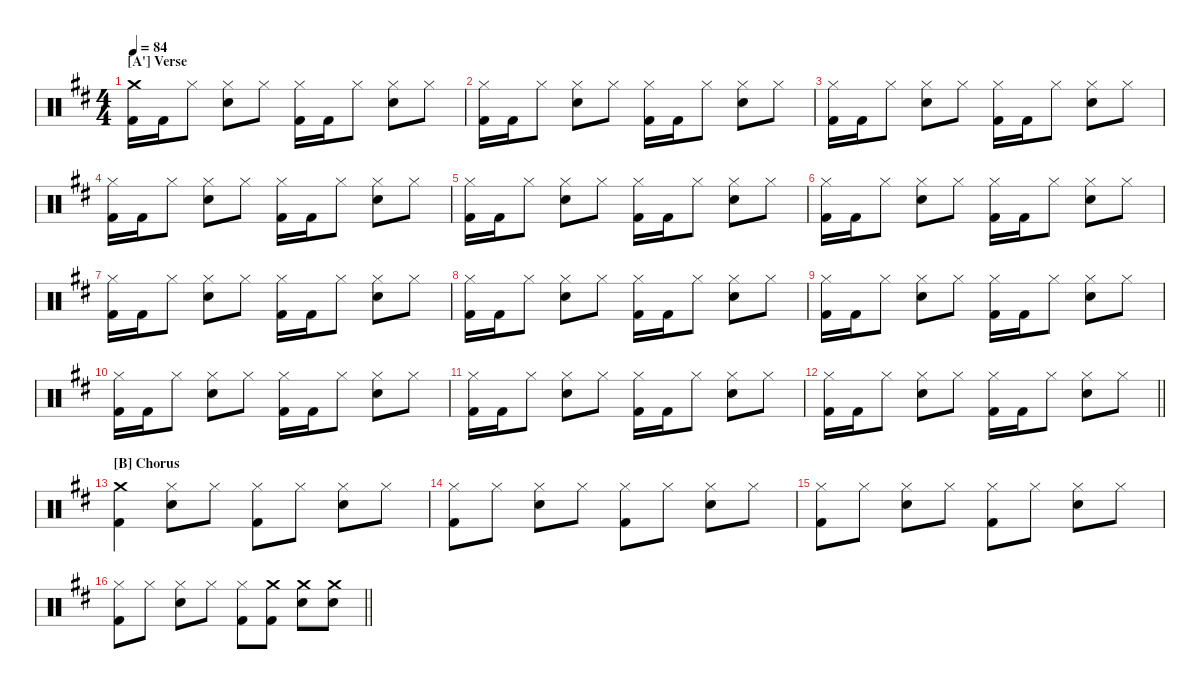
\hideDynamics
\bracketExtendMode nobrackets
\singleTrackTrackNamePolicy hidden
\multiTrackTrackNamePolicy hidden
\otherSystemsTrackNameOrientation horizontal
\track ("Drumkit" "Drums") {instrument percussion}
\staff {score}
\articulation defaults
\ts (4 4)
\section ("A'" "Verse")
\tempo 84
\clef neutral
\ks d
("Kick (hit) 2"{acc forcenatural} "Crash medium (hit)"{acc forcenatural}).16{dy f beam Down} "Kick (hit) 2"{acc forcenatural}.16{beam Down} "Hi-Hat (closed)"{acc forcenatural}.8{beam Down} ("Snare (hit) 2"{acc forcenatural} "Hi-Hat (closed)"{acc forcenatural}).8{beam Down} "Hi-Hat (closed)"{acc forcenatural}.8{beam Down} ("Kick (hit) 2"{acc forcenatural} "Hi-Hat (closed)"{acc forcenatural}).16{beam Down} "Kick (hit) 2"{acc forcenatural}.16{beam Down} "Hi-Hat (closed)"{acc forcenatural}.8{beam Down} ("Snare (hit) 2"{acc forcenatural} "Hi-Hat (closed)"{acc forcenatural}).8{beam Down} "Hi-Hat (closed)"{acc forcenatural}.8{beam Down} |
("Kick (hit) 2"{acc forcenatural} "Hi-Hat (closed)"{acc forcenatural}).16{beam Down} "Kick (hit) 2"{acc forcenatural}.16{beam Down} "Hi-Hat (closed)"{acc forcenatural}.8{beam Down} ("Snare (hit) 2"{acc forcenatural} "Hi-Hat (closed)"{acc forcenatural}).8{beam Down} "Hi-Hat (closed)"{acc forcenatural}.8{beam Down} ("Kick (hit) 2"{acc forcenatural} "Hi-Hat (closed)"{acc forcenatural}).16{beam Down} "Kick (hit) 2"{acc forcenatural}.16{beam Down} "Hi-Hat (closed)"{acc forcenatural}.8{beam Down} ("Snare (hit) 2"{acc forcenatural} "Hi-Hat (closed)"{acc forcenatural}).8{beam Down} "Hi-Hat (closed)"{acc forcenatural}.8{beam Down} |
("Kick (hit) 2"{acc forcenatural} "Hi-Hat (closed)"{acc forcenatural}).16{beam Down} "Kick (hit) 2"{acc forcenatural}.16{beam Down} "Hi-Hat (closed)"{acc forcenatural}.8{beam Down} ("Snare (hit) 2"{acc forcenatural} "Hi-Hat (closed)"{acc forcenatural}).8{beam Down} "Hi-Hat (closed)"{acc forcenatural}.8{beam Down} ("Kick (hit) 2"{acc forcenatural} "Hi-Hat (closed)"{acc forcenatural}).16{beam Down} "Kick (hit) 2"{acc forcenatural}.16{beam Down} "Hi-Hat (closed)"{acc forcenatural}.8{beam Down} ("Snare (hit) 2"{acc forcenatural} "Hi-Hat (closed)"{acc forcenatural}).8{beam Down} "Hi-Hat (closed)"{acc forcenatural}.8{beam Down} |
("Kick (hit) 2"{acc forcenatural} "Hi-Hat (closed)"{acc forcenatural}).16{beam Down} "Kick (hit) 2"{acc forcenatural}.16{beam Down} "Hi-Hat (closed)"{acc forcenatural}.8{beam Down} ("Snare (hit) 2"{acc forcenatural} "Hi-Hat (closed)"{acc forcenatural}).8{beam Down} "Hi-Hat (closed)"{acc forcenatural}.8{beam Down} ("Kick (hit) 2"{acc forcenatural} "Hi-Hat (closed)"{acc forcenatural}).16{beam Down} "Kick (hit) 2"{acc forcenatural}.16{beam Down} "Hi-Hat (closed)"{acc forcenatural}.8{beam Down} ("Snare (hit) 2"{acc forcenatural} "Hi-Hat (closed)"{acc forcenatural}).8{beam Down} "Hi-Hat (closed)"{acc forcenatural}.8{beam Down} |
("Kick (hit) 2"{acc forcenatural} "Hi-Hat (closed)"{acc forcenatural}).16{beam Down} "Kick (hit) 2"{acc forcenatural}.16{beam Down} "Hi-Hat (closed)"{acc forcenatural}.8{beam Down} ("Snare (hit) 2"{acc forcenatural} "Hi-Hat (closed)"{acc forcenatural}).8{beam Down} "Hi-Hat (closed)"{acc forcenatural}.8{beam Down} ("Kick (hit) 2"{acc forcenatural} "Hi-Hat (closed)"{acc forcenatural}).16{beam Down} "Kick (hit) 2"{acc forcenatural}.16{beam Down} "Hi-Hat (closed)"{acc forcenatural}.8{beam Down} ("Snare (hit) 2"{acc forcenatural} "Hi-Hat (closed)"{acc forcenatural}).8{beam Down} "Hi-Hat (closed)"{acc forcenatural}.8{beam Down} |
("Kick (hit) 2"{acc forcenatural} "Hi-Hat (closed)"{acc forcenatural}).16{beam Down} "Kick (hit) 2"{acc forcenatural}.16{beam Down} "Hi-Hat (closed)"{acc forcenatural}.8{beam Down} ("Snare (hit) 2"{acc forcenatural} "Hi-Hat (closed)"{acc forcenatural}).8{beam Down} "Hi-Hat (closed)"{acc forcenatural}.8{beam Down} ("Kick (hit) 2"{acc forcenatural} "Hi-Hat (closed)"{acc forcenatural}).16{beam Down} "Kick (hit) 2"{acc forcenatural}.16{beam Down} "Hi-Hat (closed)"{acc forcenatural}.8{beam Down} ("Snare (hit) 2"{acc forcenatural} "Hi-Hat (closed)"{acc forcenatural}).8{beam Down} "Hi-Hat (closed)"{acc forcenatural}.8{beam Down} |
("Kick (hit) 2"{acc forcenatural} "Hi-Hat (closed)"{acc forcenatural}).16{beam Down} "Kick (hit) 2"{acc forcenatural}.16{beam Down} "Hi-Hat (closed)"{acc forcenatural}.8{beam Down} ("Snare (hit) 2"{acc forcenatural} "Hi-Hat (closed)"{acc forcenatural}).8{beam Down} "Hi-Hat (closed)"{acc forcenatural}.8{beam Down} ("Kick (hit) 2"{acc forcenatural} "Hi-Hat (closed)"{acc forcenatural}).16{beam Down} "Kick (hit) 2"{acc forcenatural}.16{beam Down} "Hi-Hat (closed)"{acc forcenatural}.8{beam Down} ("Snare (hit) 2"{acc forcenatural} "Hi-Hat (closed)"{acc forcenatural}).8{beam Down} "Hi-Hat (closed)"{acc forcenatural}.8{beam Down} |
("Kick (hit) 2"{acc forcenatural} "Hi-Hat (closed)"{acc forcenatural}).16{beam Down} "Kick (hit) 2"{acc forcenatural}.16{beam Down} "Hi-Hat (closed)"{acc forcenatural}.8{beam Down} ("Snare (hit) 2"{acc forcenatural} "Hi-Hat (closed)"{acc forcenatural}).8{beam Down} "Hi-Hat (closed)"{acc forcenatural}.8{beam Down} ("Kick (hit) 2"{acc forcenatural} "Hi-Hat (closed)"{acc forcenatural}).16{beam Down} "Kick (hit) 2"{acc forcenatural}.16{beam Down} "Hi-Hat (closed)"{acc forcenatural}.8{beam Down} ("Snare (hit) 2"{acc forcenatural} "Hi-Hat (closed)"{acc forcenatural}).8{beam Down} "Hi-Hat (closed)"{acc forcenatural}.8{beam Down} |
("Kick (hit) 2"{acc forcenatural} "Hi-Hat (closed)"{acc forcenatural}).16{beam Down} "Kick (hit) 2"{acc forcenatural}.16{beam Down} "Hi-Hat (closed)"{acc forcenatural}.8{beam Down} ("Snare (hit) 2"{acc forcenatural} "Hi-Hat (closed)"{acc forcenatural}).8{beam Down} "Hi-Hat (closed)"{acc forcenatural}.8{beam Down} ("Kick (hit) 2"{acc forcenatural} "Hi-Hat (closed)"{acc forcenatural}).16{beam Down} "Kick (hit) 2"{acc forcenatural}.16{beam Down} "Hi-Hat (closed)"{acc forcenatural}.8{beam Down} ("Snare (hit) 2"{acc forcenatural} "Hi-Hat (closed)"{acc forcenatural}).8{beam Down} "Hi-Hat (closed)"{acc forcenatural}.8{beam Down} |
("Kick (hit) 2"{acc forcenatural} "Hi-Hat (closed)"{acc forcenatural}).16{beam Down} "Kick (hit) 2"{acc forcenatural}.16{beam Down} "Hi-Hat (closed)"{acc forcenatural}.8{beam Down} ("Snare (hit) 2"{acc forcenatural} "Hi-Hat (closed)"{acc forcenatural}).8{beam Down} "Hi-Hat (closed)"{acc forcenatural}.8{beam Down} ("Kick (hit) 2"{acc forcenatural} "Hi-Hat (closed)"{acc forcenatural}).16{beam Down} "Kick (hit) 2"{acc forcenatural}.16{beam Down} "Hi-Hat (closed)"{acc forcenatural}.8{beam Down} ("Snare (hit) 2"{acc forcenatural} "Hi-Hat (closed)"{acc forcenatural}).8{beam Down} "Hi-Hat (closed)"{acc forcenatural}.8{beam Down} |
("Kick (hit) 2"{acc forcenatural} "Hi-Hat (closed)"{acc forcenatural}).16{beam Down} "Kick (hit) 2"{acc forcenatural}.16{beam Down} "Hi-Hat (closed)"{acc forcenatural}.8{beam Down} ("Snare (hit) 2"{acc forcenatural} "Hi-Hat (closed)"{acc forcenatural}).8{beam Down} "Hi-Hat (closed)"{acc forcenatural}.8{beam Down} ("Kick (hit) 2"{acc forcenatural} "Hi-Hat (closed)"{acc forcenatural}).16{beam Down} "Kick (hit) 2"{acc forcenatural}.16{beam Down} "Hi-Hat (closed)"{acc forcenatural}.8{beam Down} ("Snare (hit) 2"{acc forcenatural} "Hi-Hat (closed)"{acc forcenatural}).8{beam Down} "Hi-Hat (closed)"{acc forcenatural}.8{beam Down} |
\barLineRight lightlight
("Kick (hit) 2"{acc forcenatural} "Hi-Hat (closed)"{acc forcenatural}).16{beam Down} "Kick (hit) 2"{acc forcenatural}.16{beam Down} "Hi-Hat (closed)"{acc forcenatural}.8{beam Down} ("Snare (hit) 2"{acc forcenatural} "Hi-Hat (closed)"{acc forcenatural}).8{beam Down} "Hi-Hat (closed)"{acc forcenatural}.8{beam Down} ("Kick (hit) 2"{acc forcenatural} "Hi-Hat (closed)"{acc forcenatural}).16{beam Down} "Kick (hit) 2"{acc forcenatural}.16{beam Down} "Hi-Hat (closed)"{acc forcenatural}.8{beam Down} ("Snare (hit) 2"{acc forcenatural} "Hi-Hat (closed)"{acc forcenatural}).8{beam Down} "Hi-Hat (closed)"{acc forcenatural}.8{beam Down} |
\section ("B" "Chorus")
("Kick (hit) 2"{acc forcenatural} "Crash medium (hit)"{acc forcenatural}).4{beam Down} ("Snare (hit) 2"{acc forcenatural} "Hi-Hat (closed)"{acc forcenatural}).8{beam Down} "Hi-Hat (closed)"{acc forcenatural}.8{beam Down} ("Kick (hit) 2"{acc forcenatural} "Hi-Hat (closed)"{acc forcenatural}).8{beam Down} "Hi-Hat (closed)"{acc forcenatural}.8{beam Down} ("Snare (hit) 2"{acc forcenatural} "Hi-Hat (closed)"{acc forcenatural}).8{beam Down} "Hi-Hat (closed)"{acc forcenatural}.8{beam Down} |
("Kick (hit) 2"{acc forcenatural} "Hi-Hat (closed)"{acc forcenatural}).8{beam Down} "Hi-Hat (closed)"{acc forcenatural}.8{beam Down} ("Snare (hit) 2"{acc forcenatural} "Hi-Hat (closed)"{acc forcenatural}).8{beam Down} "Hi-Hat (closed)"{acc forcenatural}.8{beam Down} ("Kick (hit) 2"{acc forcenatural} "Hi-Hat (closed)"{acc forcenatural}).8{beam Down} "Hi-Hat (closed)"{acc forcenatural}.8{beam Down} ("Snare (hit) 2"{acc forcenatural} "Hi-Hat (closed)"{acc forcenatural}).8{beam Down} "Hi-Hat (closed)"{acc forcenatural}.8{beam Down} |
("Kick (hit) 2"{acc forcenatural} "Hi-Hat (closed)"{acc forcenatural}).8{beam Down} "Hi-Hat (closed)"{acc forcenatural}.8{beam Down} ("Snare (hit) 2"{acc forcenatural} "Hi-Hat (closed)"{acc forcenatural}).8{beam Down} "Hi-Hat (closed)"{acc forcenatural}.8{beam Down} ("Kick (hit) 2"{acc forcenatural} "Hi-Hat (closed)"{acc forcenatural}).8{beam Down} "Hi-Hat (closed)"{acc forcenatural}.8{beam Down} ("Snare (hit) 2"{acc forcenatural} "Hi-Hat (closed)"{acc forcenatural}).8{beam Down} "Hi-Hat (closed)"{acc forcenatural}.8{beam Down} |
\barLineRight lightlight
("Kick (hit) 2"{acc forcenatural} "Hi-Hat (closed)"{acc forcenatural}).8{beam Down} "Hi-Hat (closed)"{acc forcenatural}.8{beam Down} ("Snare (hit) 2"{acc forcenatural} "Hi-Hat (closed)"{acc forcenatural}).8{beam Down} "Hi-Hat (closed)"{acc forcenatural}.8{beam Down} ("Kick (hit) 2"{acc forcenatural} "Hi-Hat (closed)"{acc forcenatural}).8{beam Down} ("Kick (hit) 2"{acc forcenatural} "Crash medium (hit)"{acc forcenatural}).8{beam Down} ("Snare (hit) 2"{acc forcenatural} "Crash medium (hit)"{acc forcenatural}).8{beam Down} ("Snare (hit) 2"{acc forcenatural} "Crash medium (hit)"{acc forcenatural}).8{beam Down}
